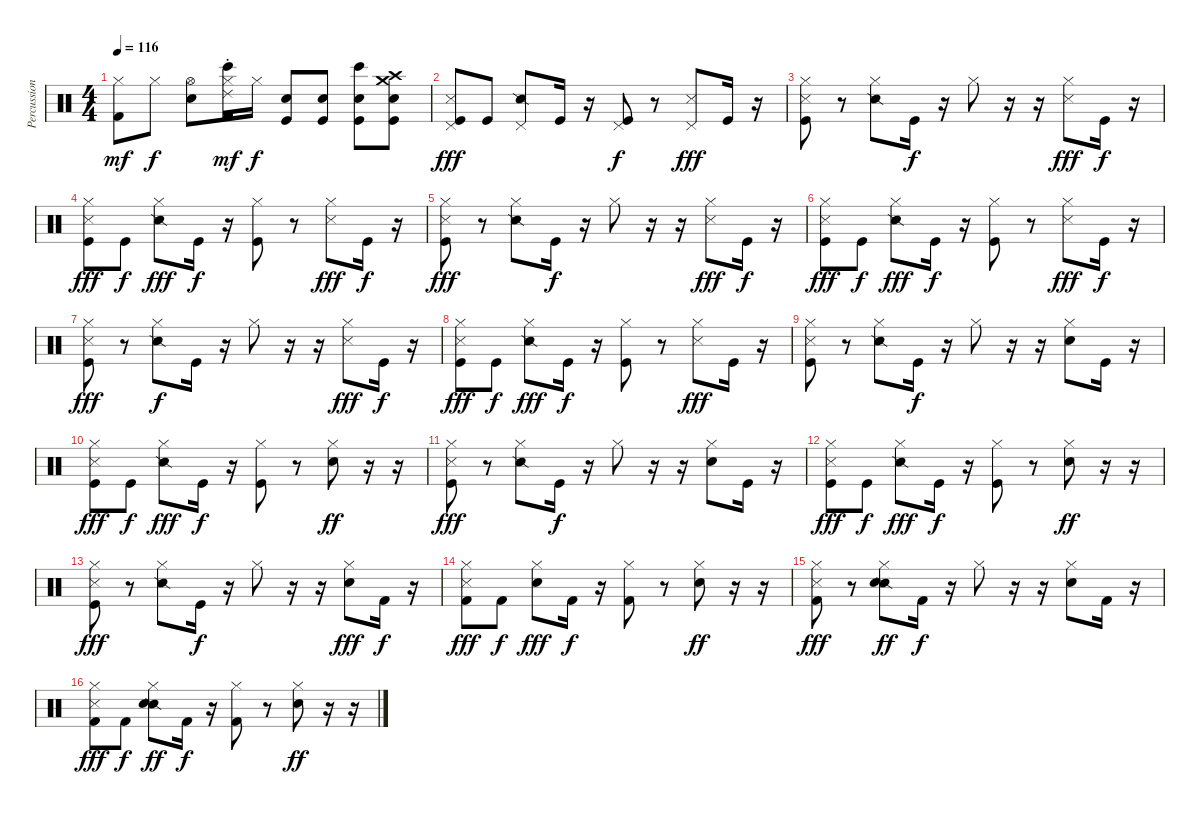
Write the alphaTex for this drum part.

\track ("Percussion" "Percussion") {instrument percussion}
\staff {score}
\articulation defaults
\ts (4 4)
\tempo 116
\clef neutral
\ks c
("Hi-Hat (closed)" "Kick (hit) 2").8{dy mf} "Hi-Hat (closed)".8{dy f} ("Hi-Hat (open)" "Electric Snare (hit)").8 ("Hi-Hat (closed)" "Kick (hit) 2" "Ride (choke) 2" "Bongo High (hit)").16{dy mf} "Hi-Hat (closed)".16{dy f} ("Kick (hit)" "Electric Snare (hit)").8 ("Kick (hit)" "Electric Snare (hit)").8 ("Kick (hit)" "Electric Snare (hit)" "Bongo High (hit)").8 ("Kick (hit)" "Hand Clap (hit)" "Crash medium (hit)" "Crash high (hit)").8 |
("Pedal Hi-Hat (hit)" "Kick (hit)" "Snare (side stick) 3").8{dy fff} "Kick (hit)".8 ("Pedal Hi-Hat (hit)" "Snare (side stick) 2").8 "Kick (hit)".16 r.16 ("Pedal Hi-Hat (hit)" "Kick (hit)").8{dy f} r.8 ("Pedal Hi-Hat (hit)" "Snare (side stick) 3").8{dy fff} "Kick (hit)".16 r.16 |
("Hi-Hat (closed)" "Kick (hit)" "Metronome (hit)").8 r.8 ("Hi-Hat (closed)" "Snare (side stick) 2").8 "Kick (hit)".16{dy f} r.16 "Hi-Hat (closed)".8 r.16 r.16 ("Hi-Hat (closed)" "Snare (side stick) 3").8{dy fff} "Kick (hit)".16{dy f} r.16 |
("Hi-Hat (closed)" "Kick (hit)" "Snare (side stick) 3").8{dy fff} "Kick (hit)".8{dy f} ("Hi-Hat (closed)" "Snare (side stick) 2").8{dy fff} "Kick (hit)".16{dy f} r.16 ("Hi-Hat (closed)" "Kick (hit)").8 r.8 ("Hi-Hat (closed)" "Snare (side stick) 3").8{dy fff} "Kick (hit)".16{dy f} r.16 |
("Hi-Hat (closed)" "Kick (hit)" "Snare (side stick) 3").8{dy fff} r.8 ("Hi-Hat (closed)" "Snare (side stick) 2").8 "Kick (hit)".16{dy f} r.16 "Hi-Hat (closed)".8 r.16 r.16 ("Hi-Hat (closed)" "Snare (side stick) 3").8{dy fff} "Kick (hit)".16{dy f} r.16 |
("Hi-Hat (closed)" "Kick (hit)" "Snare (side stick) 3").8{dy fff} "Kick (hit)".8{dy f} ("Hi-Hat (closed)" "Snare (side stick) 2").8{dy fff} "Kick (hit)".16{dy f} r.16 ("Hi-Hat (closed)" "Kick (hit)").8 r.8 ("Hi-Hat (closed)" "Snare (side stick) 3").8{dy fff} "Kick (hit)".16{dy f} r.16 |
("Hi-Hat (closed)" "Kick (hit)" "Snare (side stick) 3").8{dy fff} r.8 ("Hi-Hat (closed)" "Snare (side stick) 2").8{dy f} "Kick (hit)".16 r.16 "Hi-Hat (closed)".8 r.16 r.16 ("Hi-Hat (closed)" "Snare (side stick) 3").8{dy fff} "Kick (hit)".16{dy f} r.16 |
("Hi-Hat (closed)" "Kick (hit)" "Snare (side stick) 3").8{dy fff} "Kick (hit)".8{dy f} ("Hi-Hat (closed)" "Snare (side stick) 2").8{dy fff} "Kick (hit)".16{dy f} r.16 ("Hi-Hat (closed)" "Kick (hit)").8 r.8 ("Hi-Hat (closed)" "Snare (side stick) 3").8{dy fff} "Kick (hit)".16 r.16 |
("Hi-Hat (closed)" "Kick (hit)" "Snare (side stick) 3").8 r.8 ("Hi-Hat (closed)" "Snare (side stick) 2").8 "Kick (hit)".16{dy f} r.16 "Hi-Hat (closed)".8 r.16 r.16 ("Hi-Hat (closed)" "Electric Snare (hit)").8 "Kick (hit)".16 r.16 |
("Hi-Hat (closed)" "Kick (hit)" "Snare (side stick) 3").8{dy fff} "Kick (hit)".8{dy f} ("Hi-Hat (closed)" "Snare (side stick) 2").8{dy fff} "Kick (hit)".16{dy f} r.16 ("Hi-Hat (closed)" "Kick (hit)").8 r.8 ("Hi-Hat (closed)" "Electric Snare (hit)").8{dy ff} r.16 r.16 |
("Hi-Hat (closed)" "Kick (hit)" "Snare (side stick) 3").8{dy fff} r.8 ("Hi-Hat (closed)" "Snare (side stick) 2").8 "Kick (hit)".16{dy f} r.16 "Hi-Hat (closed)".8 r.16 r.16 ("Hi-Hat (closed)" "Electric Snare (hit)").8 "Kick (hit)".16 r.16 |
("Hi-Hat (closed)" "Kick (hit)" "Snare (side stick) 3").8{dy fff} "Kick (hit)".8{dy f} ("Hi-Hat (closed)" "Snare (side stick) 2").8{dy fff} "Kick (hit)".16{dy f} r.16 ("Hi-Hat (closed)" "Kick (hit)").8 r.8 ("Hi-Hat (closed)" "Electric Snare (hit)").8{dy ff} r.16 r.16 |
("Hi-Hat (closed)" "Kick (hit)" "Snare (side stick) 3").8{dy fff} r.8 ("Hi-Hat (closed)" "Snare (side stick) 2").8 "Kick (hit)".16{dy f} r.16 "Hi-Hat (closed)".8 r.16 r.16 ("Hi-Hat (closed)" "Electric Snare (hit)").8{dy fff} "Kick (hit) 2".16{dy f} r.16 |
("Hi-Hat (closed)" "Kick (hit) 2" "Snare (side stick) 3").8{dy fff} "Kick (hit) 2".8{dy f} ("Hi-Hat (closed)" "Electric Snare (hit)").8{dy fff} "Kick (hit) 2".16{dy f} r.16 ("Hi-Hat (closed)" "Kick (hit) 2").8 r.8 ("Hi-Hat (closed)" "Electric Snare (hit)").8{dy ff} r.16 r.16 |
("Hi-Hat (closed)" "Kick (hit) 2" "Snare (side stick) 3").8{dy fff} r.8 ("Hi-Hat (closed)" "Snare (side stick) 2" "Electric Snare (hit)").8{dy ff} "Kick (hit) 2".16{dy f} r.16 "Hi-Hat (closed)".8 r.16 r.16 ("Hi-Hat (closed)" "Electric Snare (hit)").8 "Kick (hit) 2".16 r.16 |
("Hi-Hat (closed)" "Kick (hit) 2" "Snare (side stick) 3").8{dy fff} "Kick (hit) 2".8{dy f} ("Hi-Hat (closed)" "Snare (side stick) 2" "Electric Snare (hit)").8{dy ff} "Kick (hit) 2".16{dy f} r.16 ("Hi-Hat (closed)" "Kick (hit) 2").8 r.8 ("Hi-Hat (closed)" "Electric Snare (hit)").8{dy ff} r.16 r.16
